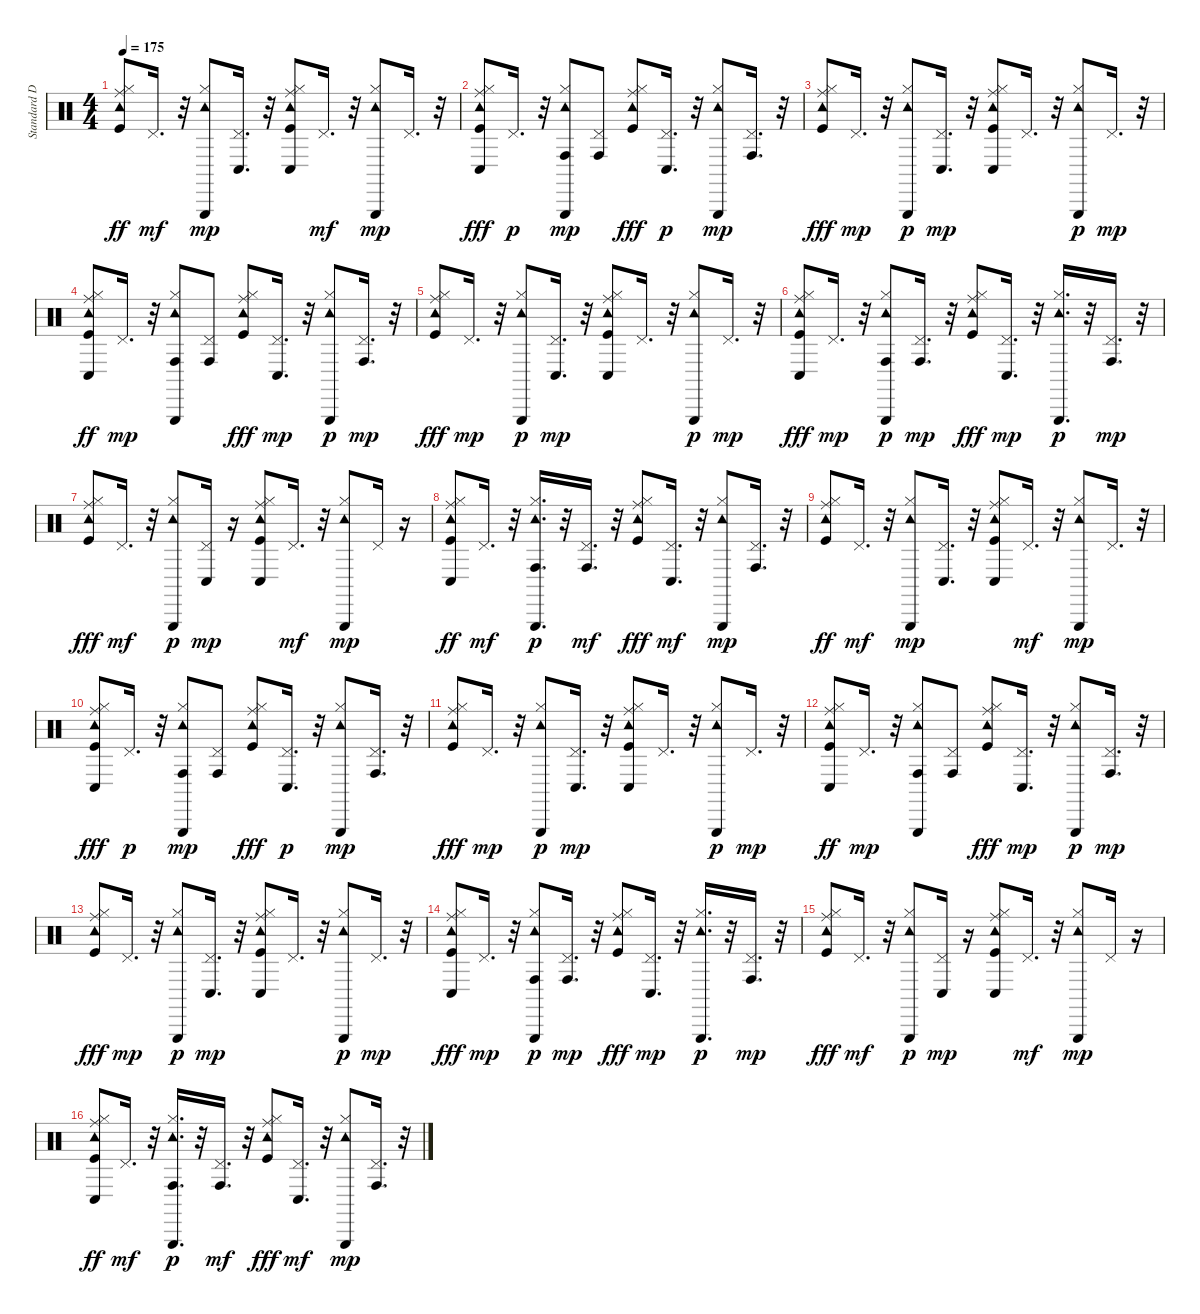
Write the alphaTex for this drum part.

\track ("Standard Drums" "Standard D") {instrument percussion}
\staff {score}
\articulation defaults
\ts (4 4)
\tempo 175
\clef neutral
\ks c
("Kick (hit)" "Hi-Hat (closed)" "Tambourine (hit)" "Ride (middle)").8{dy ff} "Pedal Hi-Hat (hit)".16{d dy mf} r.32 ("Hi-Hat (closed)" "Triangle (hit)" "Tambourine (hit)").8{dy mp} ("Pedal Hi-Hat (hit)" "Conga low (hit)").16{d} r.32 ("Kick (hit)" "Hi-Hat (closed)" "Tambourine (hit)" "Conga low (hit)" "Ride (middle)").8 "Pedal Hi-Hat (hit)".16{d dy mf} r.32 ("Hi-Hat (closed)" "Triangle (hit)" "Tambourine (hit)").8{dy mp} "Pedal Hi-Hat (hit)".16{d} r.32 |
("Kick (hit)" "Hi-Hat (closed)" "Tambourine (hit)" "Conga low (hit)" "Ride (middle)").8{dy fff} "Pedal Hi-Hat (hit)".16{d dy p} r.32 ("Hi-Hat (closed)" "Triangle (hit)" "Tambourine (hit)" "Conga high (hit)").8{dy mp} ("Pedal Hi-Hat (hit)" "Conga high (hit)").8 ("Kick (hit)" "Hi-Hat (closed)" "Tambourine (hit)" "Ride (middle)").8{dy fff} ("Pedal Hi-Hat (hit)" "Conga low (hit)").16{d dy p} r.32 ("Hi-Hat (closed)" "Triangle (hit)" "Tambourine (hit)").8{dy mp} ("Pedal Hi-Hat (hit)" "Conga high (hit)").16{d} r.32 |
("Kick (hit)" "Hi-Hat (closed)" "Tambourine (hit)" "Ride (middle)").8{dy fff} "Pedal Hi-Hat (hit)".16{d dy mp} r.32 ("Hi-Hat (closed)" "Triangle (hit)" "Tambourine (hit)").8{dy p} ("Pedal Hi-Hat (hit)" "Conga low (hit)").16{d dy mp} r.32 ("Kick (hit)" "Hi-Hat (closed)" "Tambourine (hit)" "Conga low (hit)" "Ride (middle)").8 "Pedal Hi-Hat (hit)".16{d} r.32 ("Hi-Hat (closed)" "Triangle (hit)" "Tambourine (hit)").8{dy p} "Pedal Hi-Hat (hit)".16{d dy mp} r.32 |
("Kick (hit)" "Hi-Hat (closed)" "Tambourine (hit)" "Conga low (hit)" "Ride (middle)").8{dy ff} "Pedal Hi-Hat (hit)".16{d dy mp} r.32 ("Hi-Hat (closed)" "Triangle (hit)" "Tambourine (hit)" "Conga high (hit)").8 ("Pedal Hi-Hat (hit)" "Conga high (hit)").8 ("Kick (hit)" "Hi-Hat (closed)" "Tambourine (hit)" "Ride (middle)").8{dy fff} ("Pedal Hi-Hat (hit)" "Conga low (hit)").16{d dy mp} r.32 ("Hi-Hat (closed)" "Triangle (hit)" "Tambourine (hit)").8{dy p} ("Pedal Hi-Hat (hit)" "Conga high (hit)").16{d dy mp} r.32 |
("Kick (hit)" "Hi-Hat (closed)" "Tambourine (hit)" "Ride (middle)").8{dy fff} "Pedal Hi-Hat (hit)".16{d dy mp} r.32 ("Hi-Hat (closed)" "Triangle (hit)" "Tambourine (hit)").8{dy p} ("Pedal Hi-Hat (hit)" "Conga low (hit)").16{d dy mp} r.32 ("Kick (hit)" "Hi-Hat (closed)" "Tambourine (hit)" "Conga low (hit)" "Ride (middle)").8 "Pedal Hi-Hat (hit)".16{d} r.32 ("Hi-Hat (closed)" "Triangle (hit)" "Tambourine (hit)").8{dy p} "Pedal Hi-Hat (hit)".16{d dy mp} r.32 |
("Kick (hit)" "Hi-Hat (closed)" "Tambourine (hit)" "Conga low (hit)" "Ride (middle)").8{dy fff} "Pedal Hi-Hat (hit)".16{d dy mp} r.32 ("Hi-Hat (closed)" "Triangle (hit)" "Tambourine (hit)" "Conga high (hit)").8{dy p} ("Pedal Hi-Hat (hit)" "Conga high (hit)").16{d dy mp} r.32 ("Kick (hit)" "Hi-Hat (closed)" "Tambourine (hit)" "Ride (middle)").8{dy fff} ("Pedal Hi-Hat (hit)" "Conga low (hit)").16{d dy mp} r.32 ("Hi-Hat (closed)" "Triangle (hit)" "Tambourine (hit)").16{d dy p} r.32 ("Pedal Hi-Hat (hit)" "Conga high (hit)").16{d dy mp} r.32 |
("Kick (hit)" "Hi-Hat (closed)" "Tambourine (hit)" "Ride (middle)").8{dy fff} "Pedal Hi-Hat (hit)".16{d dy mf} r.32 ("Hi-Hat (closed)" "Triangle (hit)" "Tambourine (hit)").8{dy p} ("Pedal Hi-Hat (hit)" "Conga low (hit)").16{dy mp} r.16 ("Kick (hit)" "Hi-Hat (closed)" "Tambourine (hit)" "Conga low (hit)" "Ride (middle)").8 "Pedal Hi-Hat (hit)".16{d dy mf} r.32 ("Hi-Hat (closed)" "Triangle (hit)" "Tambourine (hit)").8{dy mp} "Pedal Hi-Hat (hit)".16 r.16 |
("Kick (hit)" "Hi-Hat (closed)" "Tambourine (hit)" "Conga low (hit)" "Ride (middle)").8{dy ff} "Pedal Hi-Hat (hit)".16{d dy mf} r.32 ("Hi-Hat (closed)" "Triangle (hit)" "Tambourine (hit)" "Conga high (hit)").16{d dy p} r.32 ("Pedal Hi-Hat (hit)" "Conga high (hit)").16{d dy mf} r.32 ("Kick (hit)" "Hi-Hat (closed)" "Tambourine (hit)" "Ride (middle)").8{dy fff} ("Pedal Hi-Hat (hit)" "Conga low (hit)").16{d dy mf} r.32 ("Hi-Hat (closed)" "Triangle (hit)" "Tambourine (hit)").8{dy mp} ("Pedal Hi-Hat (hit)" "Conga high (hit)").16{d} r.32 |
("Kick (hit)" "Hi-Hat (closed)" "Tambourine (hit)" "Ride (middle)").8{dy ff} "Pedal Hi-Hat (hit)".16{d dy mf} r.32 ("Hi-Hat (closed)" "Triangle (hit)" "Tambourine (hit)").8{dy mp} ("Pedal Hi-Hat (hit)" "Conga low (hit)").16{d} r.32 ("Kick (hit)" "Hi-Hat (closed)" "Tambourine (hit)" "Conga low (hit)" "Ride (middle)").8 "Pedal Hi-Hat (hit)".16{d dy mf} r.32 ("Hi-Hat (closed)" "Triangle (hit)" "Tambourine (hit)").8{dy mp} "Pedal Hi-Hat (hit)".16{d} r.32 |
("Kick (hit)" "Hi-Hat (closed)" "Tambourine (hit)" "Conga low (hit)" "Ride (middle)").8{dy fff} "Pedal Hi-Hat (hit)".16{d dy p} r.32 ("Hi-Hat (closed)" "Triangle (hit)" "Tambourine (hit)" "Conga high (hit)").8{dy mp} ("Pedal Hi-Hat (hit)" "Conga high (hit)").8 ("Kick (hit)" "Hi-Hat (closed)" "Tambourine (hit)" "Ride (middle)").8{dy fff} ("Pedal Hi-Hat (hit)" "Conga low (hit)").16{d dy p} r.32 ("Hi-Hat (closed)" "Triangle (hit)" "Tambourine (hit)").8{dy mp} ("Pedal Hi-Hat (hit)" "Conga high (hit)").16{d} r.32 |
("Kick (hit)" "Hi-Hat (closed)" "Tambourine (hit)" "Ride (middle)").8{dy fff} "Pedal Hi-Hat (hit)".16{d dy mp} r.32 ("Hi-Hat (closed)" "Triangle (hit)" "Tambourine (hit)").8{dy p} ("Pedal Hi-Hat (hit)" "Conga low (hit)").16{d dy mp} r.32 ("Kick (hit)" "Hi-Hat (closed)" "Tambourine (hit)" "Conga low (hit)" "Ride (middle)").8 "Pedal Hi-Hat (hit)".16{d} r.32 ("Hi-Hat (closed)" "Triangle (hit)" "Tambourine (hit)").8{dy p} "Pedal Hi-Hat (hit)".16{d dy mp} r.32 |
("Kick (hit)" "Hi-Hat (closed)" "Tambourine (hit)" "Conga low (hit)" "Ride (middle)").8{dy ff} "Pedal Hi-Hat (hit)".16{d dy mp} r.32 ("Hi-Hat (closed)" "Triangle (hit)" "Tambourine (hit)" "Conga high (hit)").8 ("Pedal Hi-Hat (hit)" "Conga high (hit)").8 ("Kick (hit)" "Hi-Hat (closed)" "Tambourine (hit)" "Ride (middle)").8{dy fff} ("Pedal Hi-Hat (hit)" "Conga low (hit)").16{d dy mp} r.32 ("Hi-Hat (closed)" "Triangle (hit)" "Tambourine (hit)").8{dy p} ("Pedal Hi-Hat (hit)" "Conga high (hit)").16{d dy mp} r.32 |
("Kick (hit)" "Hi-Hat (closed)" "Tambourine (hit)" "Ride (middle)").8{dy fff} "Pedal Hi-Hat (hit)".16{d dy mp} r.32 ("Hi-Hat (closed)" "Triangle (hit)" "Tambourine (hit)").8{dy p} ("Pedal Hi-Hat (hit)" "Conga low (hit)").16{d dy mp} r.32 ("Kick (hit)" "Hi-Hat (closed)" "Tambourine (hit)" "Conga low (hit)" "Ride (middle)").8 "Pedal Hi-Hat (hit)".16{d} r.32 ("Hi-Hat (closed)" "Triangle (hit)" "Tambourine (hit)").8{dy p} "Pedal Hi-Hat (hit)".16{d dy mp} r.32 |
("Kick (hit)" "Hi-Hat (closed)" "Tambourine (hit)" "Conga low (hit)" "Ride (middle)").8{dy fff} "Pedal Hi-Hat (hit)".16{d dy mp} r.32 ("Hi-Hat (closed)" "Triangle (hit)" "Tambourine (hit)" "Conga high (hit)").8{dy p} ("Pedal Hi-Hat (hit)" "Conga high (hit)").16{d dy mp} r.32 ("Kick (hit)" "Hi-Hat (closed)" "Tambourine (hit)" "Ride (middle)").8{dy fff} ("Pedal Hi-Hat (hit)" "Conga low (hit)").16{d dy mp} r.32 ("Hi-Hat (closed)" "Triangle (hit)" "Tambourine (hit)").16{d dy p} r.32 ("Pedal Hi-Hat (hit)" "Conga high (hit)").16{d dy mp} r.32 |
("Kick (hit)" "Hi-Hat (closed)" "Tambourine (hit)" "Ride (middle)").8{dy fff} "Pedal Hi-Hat (hit)".16{d dy mf} r.32 ("Hi-Hat (closed)" "Triangle (hit)" "Tambourine (hit)").8{dy p} ("Pedal Hi-Hat (hit)" "Conga low (hit)").16{dy mp} r.16 ("Kick (hit)" "Hi-Hat (closed)" "Tambourine (hit)" "Conga low (hit)" "Ride (middle)").8 "Pedal Hi-Hat (hit)".16{d dy mf} r.32 ("Hi-Hat (closed)" "Triangle (hit)" "Tambourine (hit)").8{dy mp} "Pedal Hi-Hat (hit)".16 r.16 |
("Kick (hit)" "Hi-Hat (closed)" "Tambourine (hit)" "Conga low (hit)" "Ride (middle)").8{dy ff} "Pedal Hi-Hat (hit)".16{d dy mf} r.32 ("Hi-Hat (closed)" "Triangle (hit)" "Tambourine (hit)" "Conga high (hit)").16{d dy p} r.32 ("Pedal Hi-Hat (hit)" "Conga high (hit)").16{d dy mf} r.32 ("Kick (hit)" "Hi-Hat (closed)" "Tambourine (hit)" "Ride (middle)").8{dy fff} ("Pedal Hi-Hat (hit)" "Conga low (hit)").16{d dy mf} r.32 ("Hi-Hat (closed)" "Triangle (hit)" "Tambourine (hit)").8{dy mp} ("Pedal Hi-Hat (hit)" "Conga high (hit)").16{d} r.32
